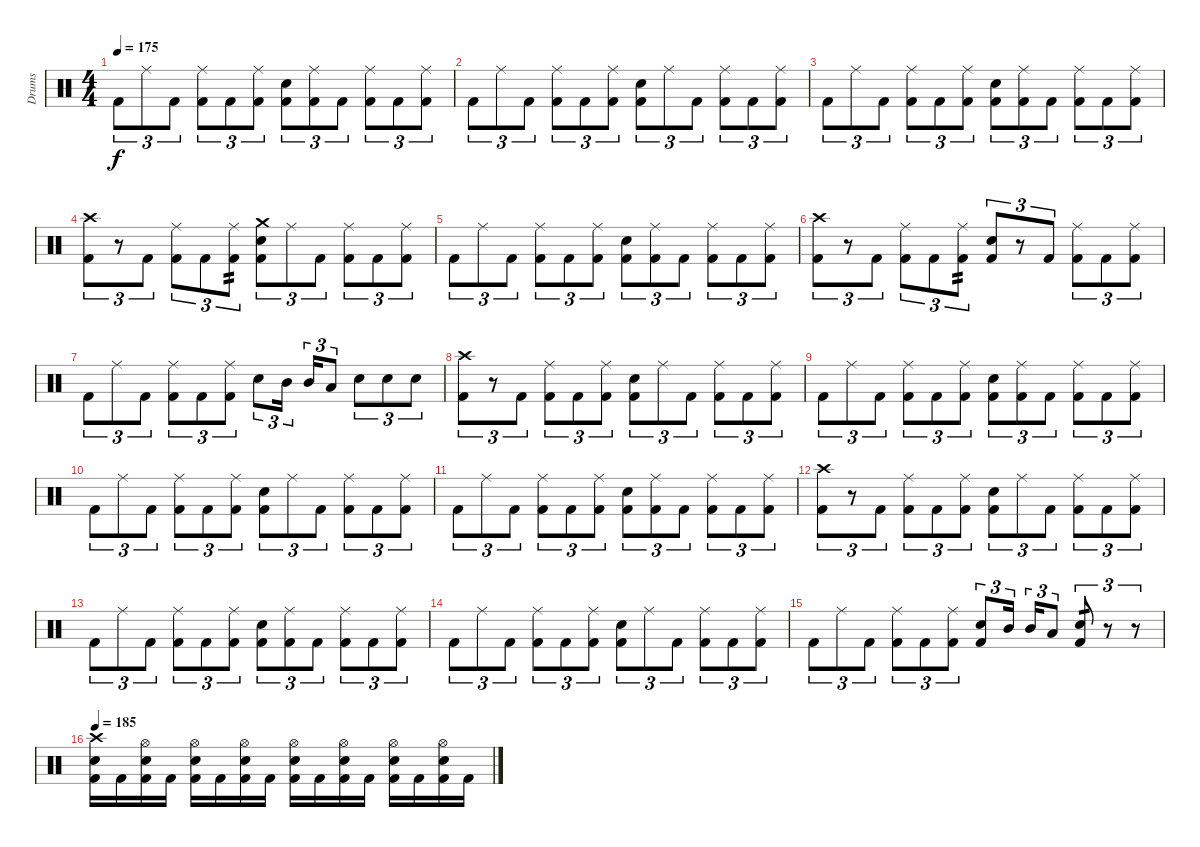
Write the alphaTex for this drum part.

\track ("Drums" "Drums") {instrument percussion}
\staff {score}
\articulation defaults
\ts (4 4)
\tempo 175
\clef neutral
\ks c "Kick (hit) 2".8{tu (3 2) dy f} "Ride (middle)".8{tu (3 2)} "Kick (hit) 2".8{tu (3 2)}
("Ride (middle)" "Kick (hit) 2").8{tu (3 2)} "Kick (hit) 2".8{tu (3 2)} ("Ride (middle)" "Kick (hit) 2").8{tu (3 2)} ("Electric Snare (hit)" "Kick (hit) 2").8{tu (3 2)} ("Ride (middle)" "Kick (hit) 2").8{tu (3 2)} "Kick (hit) 2".8{tu (3 2)} ("Ride (middle)" "Kick (hit) 2").8{tu (3 2)} "Kick (hit) 2".8{tu (3 2)} ("Ride (middle)" "Kick (hit) 2").8{tu (3 2)} |
"Kick (hit) 2".8{tu (3 2)} "Ride (middle)".8{tu (3 2)} "Kick (hit) 2".8{tu (3 2)} ("Ride (middle)" "Kick (hit) 2").8{tu (3 2)} "Kick (hit) 2".8{tu (3 2)} ("Ride (middle)" "Kick (hit) 2").8{tu (3 2)} ("Electric Snare (hit)" "Kick (hit) 2").8{tu (3 2)} "Ride (middle)".8{tu (3 2)} "Kick (hit) 2".8{tu (3 2)} ("Ride (middle)" "Kick (hit) 2").8{tu (3 2)} "Kick (hit) 2".8{tu (3 2)} ("Ride (middle)" "Kick (hit) 2").8{tu (3 2)} |
"Kick (hit) 2".8{tu (3 2)} "Ride (middle)".8{tu (3 2)} "Kick (hit) 2".8{tu (3 2)} ("Ride (middle)" "Kick (hit) 2").8{tu (3 2)} "Kick (hit) 2".8{tu (3 2)} ("Ride (middle)" "Kick (hit) 2").8{tu (3 2)} ("Electric Snare (hit)" "Kick (hit) 2").8{tu (3 2)} ("Ride (middle)" "Kick (hit) 2").8{tu (3 2)} "Kick (hit) 2".8{tu (3 2)} ("Ride (middle)" "Kick (hit) 2").8{tu (3 2)} "Kick (hit) 2".8{tu (3 2)} ("Ride (middle)" "Kick (hit) 2").8{tu (3 2)} |
("Crash high (hit)" "Kick (hit) 2").8{tu (3 2)} r.8{tu (3 2)} "Kick (hit) 2".8{tu (3 2)} ("Ride (middle)" "Kick (hit) 2").8{tu (3 2)} "Kick (hit) 2".8{tu (3 2)} ("Ride (middle)" "Kick (hit) 2").8{tu (3 2) tp 2} ("Crash medium (hit)" "Electric Snare (hit)" "Kick (hit) 2").8{tu (3 2)} "Ride (middle)".8{tu (3 2)} "Kick (hit) 2".8{tu (3 2)} ("Ride (middle)" "Kick (hit) 2").8{tu (3 2)} "Kick (hit) 2".8{tu (3 2)} ("Ride (middle)" "Kick (hit) 2").8{tu (3 2)} |
"Kick (hit) 2".8{tu (3 2)} "Ride (middle)".8{tu (3 2)} "Kick (hit) 2".8{tu (3 2)} ("Ride (middle)" "Kick (hit) 2").8{tu (3 2)} "Kick (hit) 2".8{tu (3 2)} ("Ride (middle)" "Kick (hit) 2").8{tu (3 2)} ("Electric Snare (hit)" "Kick (hit) 2").8{tu (3 2)} ("Ride (middle)" "Kick (hit) 2").8{tu (3 2)} "Kick (hit) 2".8{tu (3 2)} ("Ride (middle)" "Kick (hit) 2").8{tu (3 2)} "Kick (hit) 2".8{tu (3 2)} ("Ride (middle)" "Kick (hit) 2").8{tu (3 2)} |
("Crash high (hit)" "Kick (hit) 2").8{tu (3 2)} r.8{tu (3 2)} "Kick (hit) 2".8{tu (3 2)} ("Ride (middle)" "Kick (hit) 2").8{tu (3 2)} "Kick (hit) 2".8{tu (3 2)} ("Ride (middle)" "Kick (hit) 2").8{tu (3 2) tp 2} ("Electric Snare (hit)" "Kick (hit) 2").8{tu (3 2)} r.8{tu (3 2)} "Kick (hit) 2".8{tu (3 2)} ("Ride (middle)" "Kick (hit) 2").8{tu (3 2)} "Kick (hit) 2".8{tu (3 2)} ("Ride (middle)" "Kick (hit) 2").8{tu (3 2)} |
"Kick (hit) 2".8{tu (3 2)} "Ride (middle)".8{tu (3 2)} "Kick (hit) 2".8{tu (3 2)} ("Ride (middle)" "Kick (hit) 2").8{tu (3 2)} "Kick (hit) 2".8{tu (3 2)} ("Ride (middle)" "Kick (hit) 2").8{tu (3 2)} "Electric Snare (hit)".8{tu (3 2)} "Mid Tom (hit)".16{tu (3 2) beam splitsecondary} "Mid Tom (hit)".16{tu (3 2)} "Low Tom (hit)".8{tu (3 2)} "Electric Snare (hit)".8{tu (3 2)} "Electric Snare (hit)".8{tu (3 2)} "Electric Snare (hit)".8{tu (3 2)} |
("Crash high (hit)" "Kick (hit) 2").8{tu (3 2)} r.8{tu (3 2)} "Kick (hit) 2".8{tu (3 2)} ("Ride (middle)" "Kick (hit) 2").8{tu (3 2)} "Kick (hit) 2".8{tu (3 2)} ("Ride (middle)" "Kick (hit) 2").8{tu (3 2)} ("Electric Snare (hit)" "Kick (hit) 2").8{tu (3 2)} "Ride (middle)".8{tu (3 2)} "Kick (hit) 2".8{tu (3 2)} ("Ride (middle)" "Kick (hit) 2").8{tu (3 2)} "Kick (hit) 2".8{tu (3 2)} ("Ride (middle)" "Kick (hit) 2").8{tu (3 2)} |
"Kick (hit) 2".8{tu (3 2)} "Ride (middle)".8{tu (3 2)} "Kick (hit) 2".8{tu (3 2)} ("Ride (middle)" "Kick (hit) 2").8{tu (3 2)} "Kick (hit) 2".8{tu (3 2)} ("Ride (middle)" "Kick (hit) 2").8{tu (3 2)} ("Electric Snare (hit)" "Kick (hit) 2").8{tu (3 2)} ("Ride (middle)" "Kick (hit) 2").8{tu (3 2)} "Kick (hit) 2".8{tu (3 2)} ("Ride (middle)" "Kick (hit) 2").8{tu (3 2)} "Kick (hit) 2".8{tu (3 2)} ("Ride (middle)" "Kick (hit) 2").8{tu (3 2)} |
"Kick (hit) 2".8{tu (3 2)} "Ride (middle)".8{tu (3 2)} "Kick (hit) 2".8{tu (3 2)} ("Ride (middle)" "Kick (hit) 2").8{tu (3 2)} "Kick (hit) 2".8{tu (3 2)} ("Ride (middle)" "Kick (hit) 2").8{tu (3 2)} ("Electric Snare (hit)" "Kick (hit) 2").8{tu (3 2)} "Ride (middle)".8{tu (3 2)} "Kick (hit) 2".8{tu (3 2)} ("Ride (middle)" "Kick (hit) 2").8{tu (3 2)} "Kick (hit) 2".8{tu (3 2)} ("Ride (middle)" "Kick (hit) 2").8{tu (3 2)} |
"Kick (hit) 2".8{tu (3 2)} "Ride (middle)".8{tu (3 2)} "Kick (hit) 2".8{tu (3 2)} ("Ride (middle)" "Kick (hit) 2").8{tu (3 2)} "Kick (hit) 2".8{tu (3 2)} ("Ride (middle)" "Kick (hit) 2").8{tu (3 2)} ("Electric Snare (hit)" "Kick (hit) 2").8{tu (3 2)} ("Ride (middle)" "Kick (hit) 2").8{tu (3 2)} "Kick (hit) 2".8{tu (3 2)} ("Ride (middle)" "Kick (hit) 2").8{tu (3 2)} "Kick (hit) 2".8{tu (3 2)} ("Ride (middle)" "Kick (hit) 2").8{tu (3 2)} |
("Crash high (hit)" "Kick (hit) 2").8{tu (3 2)} r.8{tu (3 2)} "Kick (hit) 2".8{tu (3 2)} ("Ride (middle)" "Kick (hit) 2").8{tu (3 2)} "Kick (hit) 2".8{tu (3 2)} ("Ride (middle)" "Kick (hit) 2").8{tu (3 2)} ("Electric Snare (hit)" "Kick (hit) 2").8{tu (3 2)} "Ride (middle)".8{tu (3 2)} "Kick (hit) 2".8{tu (3 2)} ("Ride (middle)" "Kick (hit) 2").8{tu (3 2)} "Kick (hit) 2".8{tu (3 2)} ("Ride (middle)" "Kick (hit) 2").8{tu (3 2)} |
"Kick (hit) 2".8{tu (3 2)} "Ride (middle)".8{tu (3 2)} "Kick (hit) 2".8{tu (3 2)} ("Ride (middle)" "Kick (hit) 2").8{tu (3 2)} "Kick (hit) 2".8{tu (3 2)} ("Ride (middle)" "Kick (hit) 2").8{tu (3 2)} ("Electric Snare (hit)" "Kick (hit) 2").8{tu (3 2)} ("Ride (middle)" "Kick (hit) 2").8{tu (3 2)} "Kick (hit) 2".8{tu (3 2)} ("Ride (middle)" "Kick (hit) 2").8{tu (3 2)} "Kick (hit) 2".8{tu (3 2)} ("Ride (middle)" "Kick (hit) 2").8{tu (3 2)} |
"Kick (hit) 2".8{tu (3 2)} "Ride (middle)".8{tu (3 2)} "Kick (hit) 2".8{tu (3 2)} ("Ride (middle)" "Kick (hit) 2").8{tu (3 2)} "Kick (hit) 2".8{tu (3 2)} ("Ride (middle)" "Kick (hit) 2").8{tu (3 2)} ("Electric Snare (hit)" "Kick (hit) 2").8{tu (3 2)} "Ride (middle)".8{tu (3 2)} "Kick (hit) 2".8{tu (3 2)} ("Ride (middle)" "Kick (hit) 2").8{tu (3 2)} "Kick (hit) 2".8{tu (3 2)} ("Ride (middle)" "Kick (hit) 2").8{tu (3 2)} |
"Kick (hit) 2".8{tu (3 2)} "Ride (middle)".8{tu (3 2)} "Kick (hit) 2".8{tu (3 2)} ("Ride (middle)" "Kick (hit) 2").8{tu (3 2)} "Kick (hit) 2".8{tu (3 2)} ("Ride (middle)" "Kick (hit) 2").8{tu (3 2)} ("Electric Snare (hit)" "Kick (hit) 2").8{tu (3 2)} "Mid Tom (hit)".16{tu (3 2) beam splitsecondary} "Mid Tom (hit)".16{tu (3 2)} "Low Tom (hit)".8{tu (3 2)} ("Electric Snare (hit)" "Kick (hit) 2").8{tu (3 2) tp 1} r.8{tu (3 2)} r.8{tu (3 2)} |
\tempo 185
("Crash high (hit)" "Electric Snare (hit)" "Kick (hit) 2").16 "Kick (hit) 2".16 ("Hi-Hat (open)" "Electric Snare (hit)" "Kick (hit) 2").16 "Kick (hit) 2".16 ("Hi-Hat (open)" "Electric Snare (hit)" "Kick (hit) 2").16 "Kick (hit) 2".16 ("Hi-Hat (open)" "Electric Snare (hit)" "Kick (hit) 2").16 "Kick (hit) 2".16 ("Hi-Hat (open)" "Electric Snare (hit)" "Kick (hit) 2").16 "Kick (hit) 2".16 ("Hi-Hat (open)" "Electric Snare (hit)" "Kick (hit) 2").16 "Kick (hit) 2".16 ("Hi-Hat (open)" "Electric Snare (hit)" "Kick (hit) 2").16 "Kick (hit) 2".16 ("Hi-Hat (open)" "Electric Snare (hit)" "Kick (hit) 2").16 "Kick (hit) 2".16
